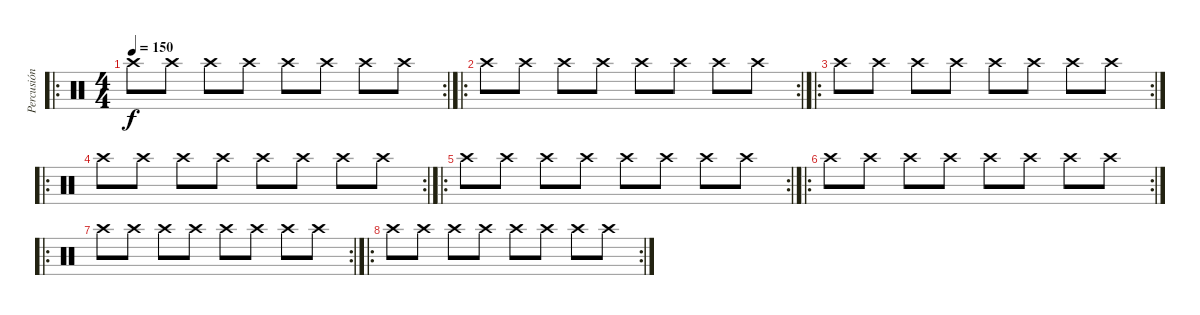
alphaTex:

\track ("Percusión" "Percusión") {instrument percussion}
\staff {score}
\articulation defaults
\ro
\rc 2
\ts (4 4)
\tempo 150
\clef neutral
\ks c "Crash high (hit)".8{dy f} "Crash high (hit)".8 "Crash high (hit)".8 "Crash high (hit)".8 "Crash high (hit)".8 "Crash high (hit)".8 "Crash high (hit)".8 "Crash high (hit)".8
|
\ro
\rc 2 "Crash high (hit)".8 "Crash high (hit)".8 "Crash high (hit)".8 "Crash high (hit)".8 "Crash high (hit)".8 "Crash high (hit)".8 "Crash high (hit)".8 "Crash high (hit)".8
|
\ro
\rc 2 "Crash high (hit)".8 "Crash high (hit)".8 "Crash high (hit)".8 "Crash high (hit)".8 "Crash high (hit)".8 "Crash high (hit)".8 "Crash high (hit)".8 "Crash high (hit)".8
|
\ro
\rc 2 "Crash high (hit)".8 "Crash high (hit)".8 "Crash high (hit)".8 "Crash high (hit)".8 "Crash high (hit)".8 "Crash high (hit)".8 "Crash high (hit)".8 "Crash high (hit)".8
|
\ro
\rc 2 "Crash high (hit)".8 "Crash high (hit)".8 "Crash high (hit)".8 "Crash high (hit)".8 "Crash high (hit)".8 "Crash high (hit)".8 "Crash high (hit)".8 "Crash high (hit)".8
|
\ro
\rc 2 "Crash high (hit)".8 "Crash high (hit)".8 "Crash high (hit)".8 "Crash high (hit)".8 "Crash high (hit)".8 "Crash high (hit)".8 "Crash high (hit)".8 "Crash high (hit)".8
|
\ro
\rc 2 "Crash high (hit)".8 "Crash high (hit)".8 "Crash high (hit)".8 "Crash high (hit)".8 "Crash high (hit)".8 "Crash high (hit)".8 "Crash high (hit)".8 "Crash high (hit)".8
|
\ro
\rc 2 "Crash high (hit)".8 "Crash high (hit)".8 "Crash high (hit)".8 "Crash high (hit)".8 "Crash high (hit)".8 "Crash high (hit)".8 "Crash high (hit)".8 "Crash high (hit)".8
